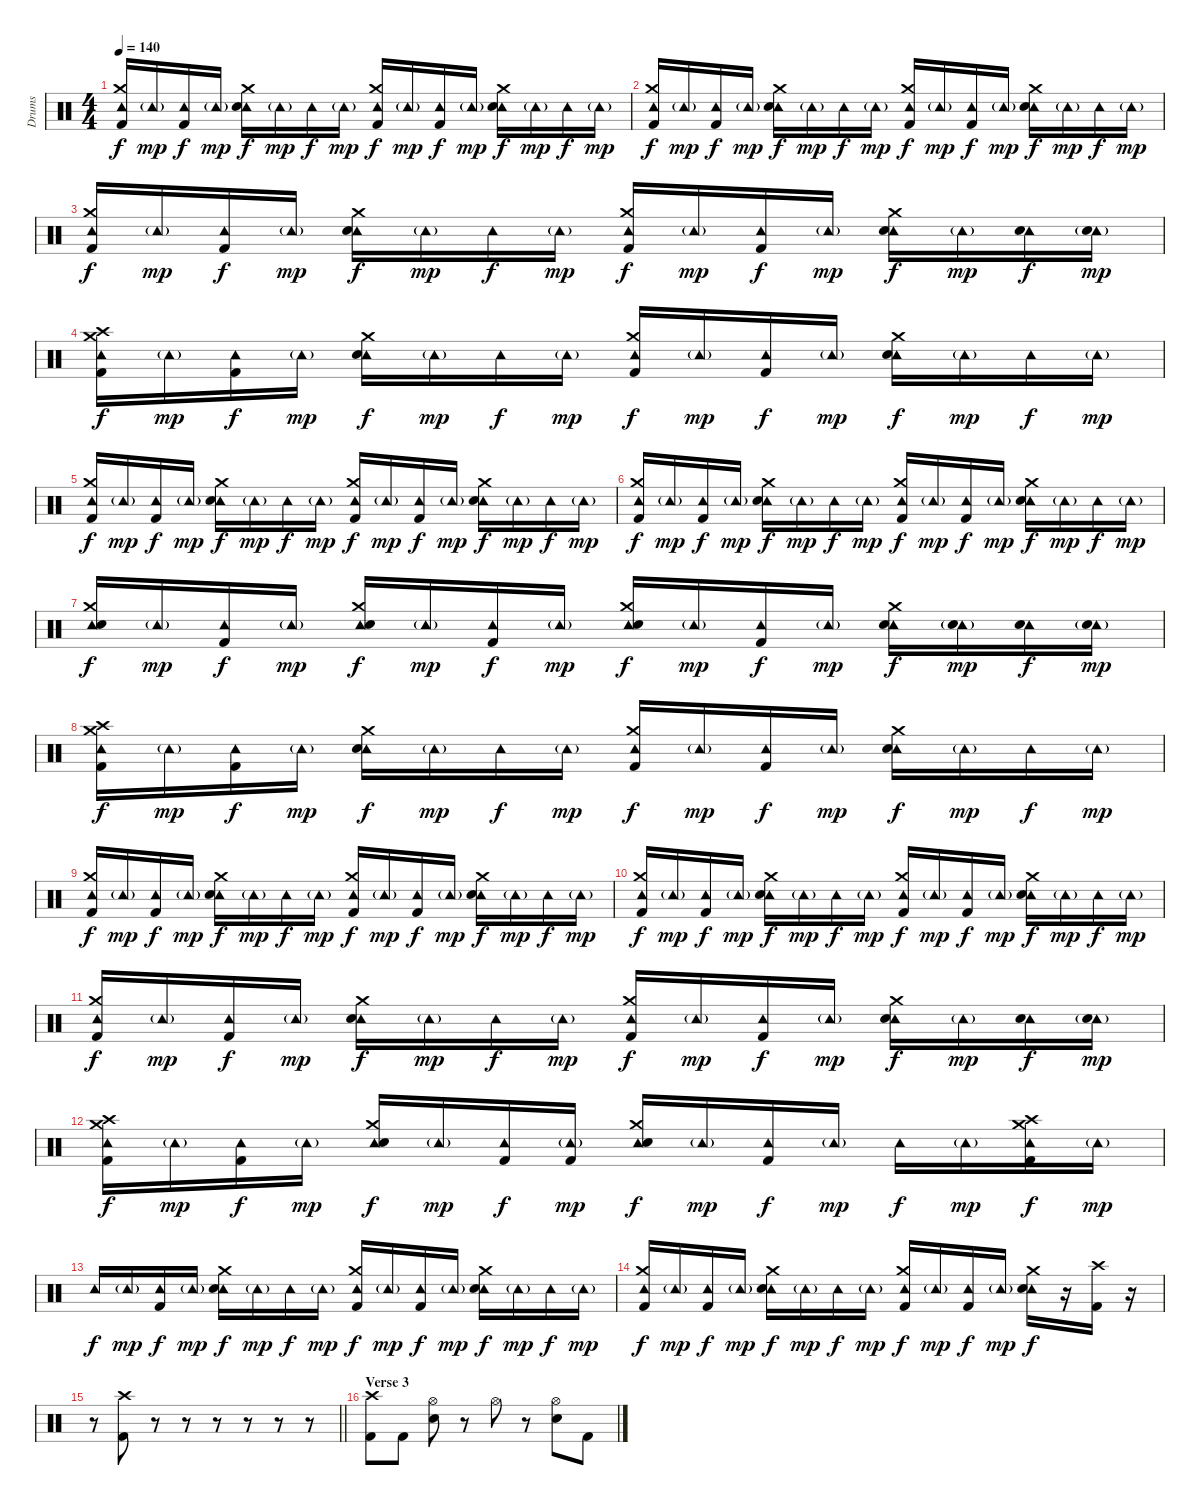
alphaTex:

\track ("Drums" "Drums") {instrument percussion}
\staff {score}
\articulation defaults
\ts (4 4)
\tempo 140
\clef neutral
\ks c
("Tambourine (hit)" "Crash medium (hit)" "Kick (hit) 2").16{dy f} "Tambourine (hit)"{g}.16{dy mp} ("Tambourine (hit)" "Kick (hit) 2").16{dy f} "Tambourine (hit)"{g}.16{dy mp} ("Tambourine (hit)" "Crash medium (hit)" "Electric Snare (hit)").16{dy f} "Tambourine (hit)"{g}.16{dy mp} "Tambourine (hit)".16{dy f} "Tambourine (hit)"{g}.16{dy mp} ("Tambourine (hit)" "Crash medium (hit)" "Kick (hit) 2").16{dy f} "Tambourine (hit)"{g}.16{dy mp} ("Tambourine (hit)" "Kick (hit) 2").16{dy f} "Tambourine (hit)"{g}.16{dy mp} ("Tambourine (hit)" "Crash medium (hit)" "Electric Snare (hit)").16{dy f} "Tambourine (hit)"{g}.16{dy mp} "Tambourine (hit)".16{dy f} "Tambourine (hit)"{g}.16{dy mp} |
("Tambourine (hit)" "Crash medium (hit)" "Kick (hit) 2").16{dy f} "Tambourine (hit)"{g}.16{dy mp} ("Tambourine (hit)" "Kick (hit) 2").16{dy f} "Tambourine (hit)"{g}.16{dy mp} ("Tambourine (hit)" "Crash medium (hit)" "Electric Snare (hit)").16{dy f} "Tambourine (hit)"{g}.16{dy mp} "Tambourine (hit)".16{dy f} "Tambourine (hit)"{g}.16{dy mp} ("Tambourine (hit)" "Crash medium (hit)" "Kick (hit) 2").16{dy f} "Tambourine (hit)"{g}.16{dy mp} ("Tambourine (hit)" "Kick (hit) 2").16{dy f} "Tambourine (hit)"{g}.16{dy mp} ("Tambourine (hit)" "Crash medium (hit)" "Electric Snare (hit)").16{dy f} "Tambourine (hit)"{g}.16{dy mp} "Tambourine (hit)".16{dy f} "Tambourine (hit)"{g}.16{dy mp} |
("Tambourine (hit)" "Crash medium (hit)" "Kick (hit) 2").16{dy f} "Tambourine (hit)"{g}.16{dy mp} ("Tambourine (hit)" "Kick (hit) 2").16{dy f} "Tambourine (hit)"{g}.16{dy mp} ("Tambourine (hit)" "Crash medium (hit)" "Electric Snare (hit)").16{dy f} "Tambourine (hit)"{g}.16{dy mp} "Tambourine (hit)".16{dy f} "Tambourine (hit)"{g}.16{dy mp} ("Tambourine (hit)" "Crash medium (hit)" "Kick (hit) 2").16{dy f} "Tambourine (hit)"{g}.16{dy mp} ("Tambourine (hit)" "Kick (hit) 2").16{dy f} "Tambourine (hit)"{g}.16{dy mp} ("Tambourine (hit)" "Crash medium (hit)" "Electric Snare (hit)").16{dy f} "Tambourine (hit)"{g}.16{dy mp} ("Tambourine (hit)" "Electric Snare (hit)").16{dy f} ("Tambourine (hit)"{g} "Electric Snare (hit)").16{dy mp} |
("Tambourine (hit)" "Crash high (hit)" "Crash medium (hit)" "Kick (hit) 2").16{dy f} "Tambourine (hit)"{g}.16{dy mp} ("Tambourine (hit)" "Kick (hit) 2").16{dy f} "Tambourine (hit)"{g}.16{dy mp} ("Tambourine (hit)" "Crash medium (hit)" "Electric Snare (hit)").16{dy f} "Tambourine (hit)"{g}.16{dy mp} "Tambourine (hit)".16{dy f} "Tambourine (hit)"{g}.16{dy mp} ("Tambourine (hit)" "Crash medium (hit)" "Kick (hit) 2").16{dy f} "Tambourine (hit)"{g}.16{dy mp} ("Tambourine (hit)" "Kick (hit) 2").16{dy f} "Tambourine (hit)"{g}.16{dy mp} ("Tambourine (hit)" "Crash medium (hit)" "Electric Snare (hit)").16{dy f} "Tambourine (hit)"{g}.16{dy mp} "Tambourine (hit)".16{dy f} "Tambourine (hit)"{g}.16{dy mp} |
("Tambourine (hit)" "Crash medium (hit)" "Kick (hit) 2").16{dy f} "Tambourine (hit)"{g}.16{dy mp} ("Tambourine (hit)" "Kick (hit) 2").16{dy f} "Tambourine (hit)"{g}.16{dy mp} ("Tambourine (hit)" "Crash medium (hit)" "Electric Snare (hit)").16{dy f} "Tambourine (hit)"{g}.16{dy mp} "Tambourine (hit)".16{dy f} "Tambourine (hit)"{g}.16{dy mp} ("Tambourine (hit)" "Crash medium (hit)" "Kick (hit) 2").16{dy f} "Tambourine (hit)"{g}.16{dy mp} ("Tambourine (hit)" "Kick (hit) 2").16{dy f} "Tambourine (hit)"{g}.16{dy mp} ("Tambourine (hit)" "Crash medium (hit)" "Electric Snare (hit)").16{dy f} "Tambourine (hit)"{g}.16{dy mp} "Tambourine (hit)".16{dy f} "Tambourine (hit)"{g}.16{dy mp} |
("Tambourine (hit)" "Crash medium (hit)" "Kick (hit) 2").16{dy f} "Tambourine (hit)"{g}.16{dy mp} ("Tambourine (hit)" "Kick (hit) 2").16{dy f} "Tambourine (hit)"{g}.16{dy mp} ("Tambourine (hit)" "Crash medium (hit)" "Electric Snare (hit)").16{dy f} "Tambourine (hit)"{g}.16{dy mp} "Tambourine (hit)".16{dy f} "Tambourine (hit)"{g}.16{dy mp} ("Tambourine (hit)" "Crash medium (hit)" "Kick (hit) 2").16{dy f} "Tambourine (hit)"{g}.16{dy mp} ("Tambourine (hit)" "Kick (hit) 2").16{dy f} "Tambourine (hit)"{g}.16{dy mp} ("Tambourine (hit)" "Crash medium (hit)" "Electric Snare (hit)").16{dy f} "Tambourine (hit)"{g}.16{dy mp} "Tambourine (hit)".16{dy f} "Tambourine (hit)"{g}.16{dy mp} |
("Tambourine (hit)" "Crash medium (hit)" "Electric Snare (hit)").16{dy f} "Tambourine (hit)"{g}.16{dy mp} ("Tambourine (hit)" "Kick (hit) 2").16{dy f} "Tambourine (hit)"{g}.16{dy mp} ("Tambourine (hit)" "Crash medium (hit)" "Electric Snare (hit)").16{dy f} "Tambourine (hit)"{g}.16{dy mp} ("Tambourine (hit)" "Kick (hit) 2").16{dy f} "Tambourine (hit)"{g}.16{dy mp} ("Tambourine (hit)" "Crash medium (hit)" "Electric Snare (hit)").16{dy f} "Tambourine (hit)"{g}.16{dy mp} ("Tambourine (hit)" "Kick (hit) 2").16{dy f} "Tambourine (hit)"{g}.16{dy mp} ("Tambourine (hit)" "Crash medium (hit)" "Electric Snare (hit)").16{dy f} ("Tambourine (hit)"{g} "Electric Snare (hit)").16{dy mp} ("Tambourine (hit)" "Electric Snare (hit)").16{dy f} ("Tambourine (hit)"{g} "Electric Snare (hit)").16{dy mp} |
("Tambourine (hit)" "Crash high (hit)" "Crash medium (hit)" "Kick (hit) 2").16{dy f} "Tambourine (hit)"{g}.16{dy mp} ("Tambourine (hit)" "Kick (hit) 2").16{dy f} "Tambourine (hit)"{g}.16{dy mp} ("Tambourine (hit)" "Crash medium (hit)" "Electric Snare (hit)").16{dy f} "Tambourine (hit)"{g}.16{dy mp} "Tambourine (hit)".16{dy f} "Tambourine (hit)"{g}.16{dy mp} ("Tambourine (hit)" "Crash medium (hit)" "Kick (hit) 2").16{dy f} "Tambourine (hit)"{g}.16{dy mp} ("Tambourine (hit)" "Kick (hit) 2").16{dy f} "Tambourine (hit)"{g}.16{dy mp} ("Tambourine (hit)" "Crash medium (hit)" "Electric Snare (hit)").16{dy f} "Tambourine (hit)"{g}.16{dy mp} "Tambourine (hit)".16{dy f} "Tambourine (hit)"{g}.16{dy mp} |
("Tambourine (hit)" "Crash medium (hit)" "Kick (hit) 2").16{dy f} "Tambourine (hit)"{g}.16{dy mp} ("Tambourine (hit)" "Kick (hit) 2").16{dy f} "Tambourine (hit)"{g}.16{dy mp} ("Tambourine (hit)" "Crash medium (hit)" "Electric Snare (hit)").16{dy f} "Tambourine (hit)"{g}.16{dy mp} "Tambourine (hit)".16{dy f} "Tambourine (hit)"{g}.16{dy mp} ("Tambourine (hit)" "Crash medium (hit)" "Kick (hit) 2").16{dy f} "Tambourine (hit)"{g}.16{dy mp} ("Tambourine (hit)" "Kick (hit) 2").16{dy f} "Tambourine (hit)"{g}.16{dy mp} ("Tambourine (hit)" "Crash medium (hit)" "Electric Snare (hit)").16{dy f} "Tambourine (hit)"{g}.16{dy mp} "Tambourine (hit)".16{dy f} "Tambourine (hit)"{g}.16{dy mp} |
("Tambourine (hit)" "Crash medium (hit)" "Kick (hit) 2").16{dy f} "Tambourine (hit)"{g}.16{dy mp} ("Tambourine (hit)" "Kick (hit) 2").16{dy f} "Tambourine (hit)"{g}.16{dy mp} ("Tambourine (hit)" "Crash medium (hit)" "Electric Snare (hit)").16{dy f} "Tambourine (hit)"{g}.16{dy mp} "Tambourine (hit)".16{dy f} "Tambourine (hit)"{g}.16{dy mp} ("Tambourine (hit)" "Crash medium (hit)" "Kick (hit) 2").16{dy f} "Tambourine (hit)"{g}.16{dy mp} ("Tambourine (hit)" "Kick (hit) 2").16{dy f} "Tambourine (hit)"{g}.16{dy mp} ("Tambourine (hit)" "Crash medium (hit)" "Electric Snare (hit)").16{dy f} "Tambourine (hit)"{g}.16{dy mp} "Tambourine (hit)".16{dy f} "Tambourine (hit)"{g}.16{dy mp} |
("Tambourine (hit)" "Crash medium (hit)" "Kick (hit) 2").16{dy f} "Tambourine (hit)"{g}.16{dy mp} ("Tambourine (hit)" "Kick (hit) 2").16{dy f} "Tambourine (hit)"{g}.16{dy mp} ("Tambourine (hit)" "Crash medium (hit)" "Electric Snare (hit)").16{dy f} "Tambourine (hit)"{g}.16{dy mp} "Tambourine (hit)".16{dy f} "Tambourine (hit)"{g}.16{dy mp} ("Tambourine (hit)" "Crash medium (hit)" "Kick (hit) 2").16{dy f} "Tambourine (hit)"{g}.16{dy mp} ("Tambourine (hit)" "Kick (hit) 2").16{dy f} "Tambourine (hit)"{g}.16{dy mp} ("Tambourine (hit)" "Crash medium (hit)" "Electric Snare (hit)").16{dy f} "Tambourine (hit)"{g}.16{dy mp} ("Tambourine (hit)" "Electric Snare (hit)").16{dy f} ("Tambourine (hit)"{g} "Electric Snare (hit)").16{dy mp} |
("Tambourine (hit)" "Crash high (hit)" "Crash medium (hit)" "Kick (hit) 2").16{dy f} "Tambourine (hit)"{g}.16{dy mp} ("Tambourine (hit)" "Kick (hit) 2").16{dy f} "Tambourine (hit)"{g}.16{dy mp} ("Tambourine (hit)" "Crash medium (hit)" "Electric Snare (hit)").16{dy f} "Tambourine (hit)"{g}.16{dy mp} ("Tambourine (hit)" "Kick (hit) 2").16{dy f} ("Tambourine (hit)"{g} "Kick (hit) 2").16{dy mp} ("Tambourine (hit)" "Crash medium (hit)" "Electric Snare (hit)").16{dy f} "Tambourine (hit)"{g}.16{dy mp} ("Tambourine (hit)" "Kick (hit) 2").16{dy f} "Tambourine (hit)"{g}.16{dy mp} "Tambourine (hit)".16{dy f} "Tambourine (hit)"{g}.16{dy mp} ("Tambourine (hit)" "Crash high (hit)" "Crash medium (hit)" "Kick (hit) 2").16{dy f} "Tambourine (hit)"{g}.16{dy mp} |
"Tambourine (hit)".16{dy f} "Tambourine (hit)"{g}.16{dy mp} ("Tambourine (hit)" "Kick (hit) 2").16{dy f} "Tambourine (hit)"{g}.16{dy mp} ("Tambourine (hit)" "Crash medium (hit)" "Electric Snare (hit)").16{dy f} "Tambourine (hit)"{g}.16{dy mp} "Tambourine (hit)".16{dy f} "Tambourine (hit)"{g}.16{dy mp} ("Tambourine (hit)" "Crash medium (hit)" "Kick (hit) 2").16{dy f} "Tambourine (hit)"{g}.16{dy mp} ("Tambourine (hit)" "Kick (hit) 2").16{dy f} "Tambourine (hit)"{g}.16{dy mp} ("Tambourine (hit)" "Crash medium (hit)" "Electric Snare (hit)").16{dy f} "Tambourine (hit)"{g}.16{dy mp} "Tambourine (hit)".16{dy f} "Tambourine (hit)"{g}.16{dy mp} |
("Tambourine (hit)" "Crash medium (hit)" "Kick (hit) 2").16{dy f} "Tambourine (hit)"{g}.16{dy mp} ("Tambourine (hit)" "Kick (hit) 2").16{dy f} "Tambourine (hit)"{g}.16{dy mp} ("Tambourine (hit)" "Crash medium (hit)" "Electric Snare (hit)").16{dy f} "Tambourine (hit)"{g}.16{dy mp} "Tambourine (hit)".16{dy f} "Tambourine (hit)"{g}.16{dy mp} ("Tambourine (hit)" "Crash medium (hit)" "Kick (hit) 2").16{dy f} "Tambourine (hit)"{g}.16{dy mp} ("Tambourine (hit)" "Kick (hit) 2").16{dy f} "Tambourine (hit)"{g}.16{dy mp} ("Tambourine (hit)" "Crash medium (hit)" "Electric Snare (hit)").16{dy f} r.16 ("Crash high (hit)" "Kick (hit) 2").16 r.16 |
\barLineRight lightlight
r.8 ("Crash high (hit)" "Kick (hit) 2").8 r.8 r.8 r.8 r.8 r.8 r.8 |
\section ("" "Verse 3")
("Crash high (hit)" "Kick (hit) 2").8 "Kick (hit) 2".8 ("Hi-Hat (open)" "Electric Snare (hit)").8 r.8 "Hi-Hat (open)".8 r.8 ("Hi-Hat (open)" "Electric Snare (hit)").8 "Kick (hit) 2".8
